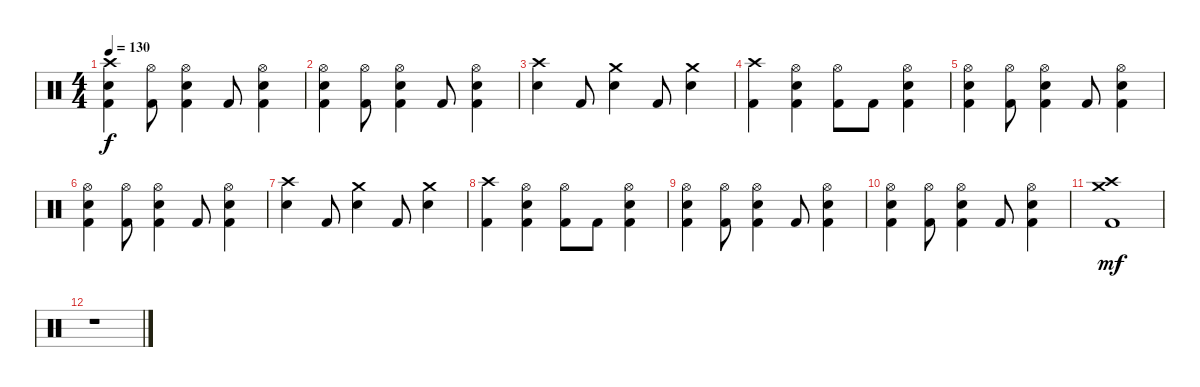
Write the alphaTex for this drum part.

\track "" {instrument percussion}
\staff {score}
\articulation defaults
\ts (4 4)
\tempo 130
\clef neutral
\ks c
("Crash high (hit)" "Kick (hit) 2" "Electric Snare (hit)").4{dy f} ("Hi-Hat (open)" "Kick (hit) 2").8 ("Hi-Hat (open)" "Kick (hit) 2" "Electric Snare (hit)").4 "Kick (hit) 2".8 ("Hi-Hat (open)" "Kick (hit) 2" "Electric Snare (hit)").4 |
("Hi-Hat (open)" "Kick (hit) 2" "Electric Snare (hit)").4 ("Hi-Hat (open)" "Kick (hit) 2").8 ("Hi-Hat (open)" "Kick (hit) 2" "Electric Snare (hit)").4 "Kick (hit) 2".8 ("Hi-Hat (open)" "Kick (hit) 2" "Electric Snare (hit)").4 |
("Crash high (hit)" "Electric Snare (hit)").4 "Kick (hit) 2".8 ("Crash medium (hit)" "Electric Snare (hit)").4 "Kick (hit) 2".8 ("Crash medium (hit)" "Electric Snare (hit)").4 |
("Crash high (hit)" "Kick (hit) 2").4 ("Hi-Hat (open)" "Kick (hit) 2" "Electric Snare (hit)").4 ("Hi-Hat (open)" "Kick (hit) 2").8 "Kick (hit) 2".8 ("Hi-Hat (open)" "Kick (hit) 2" "Electric Snare (hit)").4 |
("Hi-Hat (open)" "Kick (hit) 2" "Electric Snare (hit)").4 ("Hi-Hat (open)" "Kick (hit) 2").8 ("Hi-Hat (open)" "Kick (hit) 2" "Electric Snare (hit)").4 "Kick (hit) 2".8 ("Hi-Hat (open)" "Kick (hit) 2" "Electric Snare (hit)").4 |
("Hi-Hat (open)" "Kick (hit) 2" "Electric Snare (hit)").4 ("Hi-Hat (open)" "Kick (hit) 2").8 ("Hi-Hat (open)" "Kick (hit) 2" "Electric Snare (hit)").4 "Kick (hit) 2".8 ("Hi-Hat (open)" "Kick (hit) 2" "Electric Snare (hit)").4 |
("Crash high (hit)" "Electric Snare (hit)").4 "Kick (hit) 2".8 ("Crash medium (hit)" "Electric Snare (hit)").4 "Kick (hit) 2".8 ("Crash medium (hit)" "Electric Snare (hit)").4 |
("Crash high (hit)" "Kick (hit) 2").4 ("Hi-Hat (open)" "Kick (hit) 2" "Electric Snare (hit)").4 ("Hi-Hat (open)" "Kick (hit) 2").8 "Kick (hit) 2".8 ("Hi-Hat (open)" "Kick (hit) 2" "Electric Snare (hit)").4 |
("Hi-Hat (open)" "Kick (hit) 2" "Electric Snare (hit)").4 ("Hi-Hat (open)" "Kick (hit) 2").8 ("Hi-Hat (open)" "Kick (hit) 2" "Electric Snare (hit)").4 "Kick (hit) 2".8 ("Hi-Hat (open)" "Kick (hit) 2" "Electric Snare (hit)").4 |
("Hi-Hat (open)" "Kick (hit) 2" "Electric Snare (hit)").4 ("Hi-Hat (open)" "Kick (hit) 2").8 ("Hi-Hat (open)" "Kick (hit) 2" "Electric Snare (hit)").4 "Kick (hit) 2".8 ("Hi-Hat (open)" "Kick (hit) 2" "Electric Snare (hit)").4 |
("Crash high (hit)" "Crash medium (hit)" "Kick (hit) 2").1{dy mf} |
r.1
